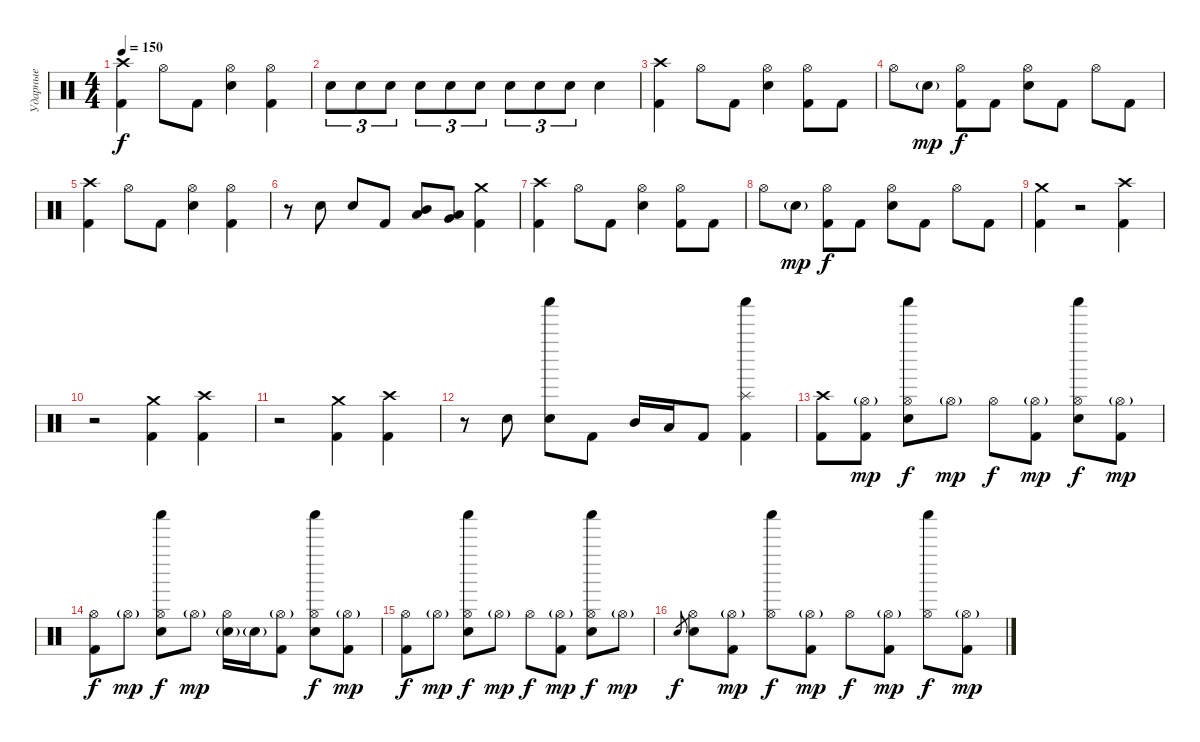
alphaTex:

\track ("Ударные" "Ударные") {instrument percussion}
\staff {score}
\articulation defaults
\ts (4 4)
\tempo 150
\clef neutral
\ks c
("Crash high (hit)" "Kick (hit) 2").4{dy f} "Hi-Hat (open)".8 "Kick (hit) 2".8 ("Hi-Hat (open)" "Snare (hit) 2").4 ("Hi-Hat (open)" "Kick (hit) 2").4 |
"Snare (hit) 2".8{tu (3 2)} "Snare (hit) 2".8{tu (3 2)} "Snare (hit) 2".8{tu (3 2)} "Snare (hit) 2".8{tu (3 2)} "Snare (hit) 2".8{tu (3 2)} "Snare (hit) 2".8{tu (3 2)} "Snare (hit) 2".8{tu (3 2)} "Snare (hit) 2".8{tu (3 2)} "Snare (hit) 2".8{tu (3 2)} "Snare (hit) 2".4 |
("Crash high (hit)" "Kick (hit) 2").4 "Hi-Hat (open)".8 "Kick (hit) 2".8 ("Hi-Hat (open)" "Snare (hit) 2").4 ("Hi-Hat (open)" "Kick (hit) 2").8 "Kick (hit) 2".8 |
"Hi-Hat (open)".8 "Snare (hit) 2"{g}.8{dy mp} ("Hi-Hat (open)" "Kick (hit) 2").8{dy f} "Kick (hit) 2".8 ("Hi-Hat (open)" "Snare (hit) 2").8 "Kick (hit) 2".8 "Hi-Hat (open)".8 "Kick (hit) 2".8 |
("Crash high (hit)" "Kick (hit) 2").4 "Hi-Hat (open)".8 "Kick (hit) 2".8 ("Hi-Hat (open)" "Snare (hit) 2").4 ("Hi-Hat (open)" "Kick (hit) 2").4 |
r.8 "Snare (hit) 2".8 "Snare (hit) 2".8 "Kick (hit) 2".8 ("Low Tom (hit)" "Mid Tom (hit)").8 ("Very Low Tom (hit)" "Low Tom (hit)").8 ("Crash medium (hit)" "Kick (hit) 2").4 |
("Crash high (hit)" "Kick (hit) 2").4 "Hi-Hat (open)".8 "Kick (hit) 2".8 ("Hi-Hat (open)" "Snare (hit) 2").4 ("Hi-Hat (open)" "Kick (hit) 2").8 "Kick (hit) 2".8 |
"Hi-Hat (open)".8 "Snare (hit) 2"{g}.8{dy mp} ("Hi-Hat (open)" "Kick (hit) 2").8{dy f} "Kick (hit) 2".8 ("Hi-Hat (open)" "Snare (hit) 2").8 "Kick (hit) 2".8 "Hi-Hat (open)".8 "Kick (hit) 2".8 |
("Crash medium (hit)" "Kick (hit) 2").4 r.2 ("Crash high (hit)" "Kick (hit) 2").4 |
r.2 ("Crash medium (hit)" "Kick (hit) 2").4 ("Crash high (hit)" "Kick (hit) 2").4 |
r.2 ("Crash medium (hit)" "Kick (hit) 2").4 ("Crash high (hit)" "Kick (hit) 2").4 |
r.8 "Snare (hit) 2".8 ("Shaker (hit)" "Snare (hit) 2").8 "Kick (hit) 2".8 "Mid Tom (hit)".16 "Low Tom (hit)".16 "Kick (hit) 2".8 ("Shaker (hit)" "Splash (hit)" "Kick (hit) 2").4 |
("Crash high (hit)" "Kick (hit) 2").8 ("Hi-Hat (open)"{g} "Kick (hit) 2").8{dy mp} ("Shaker (hit)" "Hi-Hat (open)" "Snare (hit) 2").8{dy f} "Hi-Hat (open)"{g}.8{dy mp} "Hi-Hat (open)".8{dy f} ("Hi-Hat (open)"{g} "Kick (hit) 2").8{dy mp} ("Shaker (hit)" "Hi-Hat (open)" "Snare (hit) 2").8{dy f} ("Hi-Hat (open)"{g} "Kick (hit) 2").8{dy mp} |
("Hi-Hat (open)" "Kick (hit) 2").8{dy f} "Hi-Hat (open)"{g}.8{dy mp} ("Shaker (hit)" "Hi-Hat (open)" "Snare (hit) 2").8{dy f} "Hi-Hat (open)"{g}.8{dy mp} ("Hi-Hat (open)" "Snare (hit) 2"{g}).16 "Snare (hit) 2"{g}.16 ("Hi-Hat (open)"{g} "Kick (hit) 2").8 ("Shaker (hit)" "Hi-Hat (open)" "Snare (hit) 2").8{dy f} ("Hi-Hat (open)"{g} "Kick (hit) 2").8{dy mp} |
("Hi-Hat (open)" "Kick (hit) 2").8{dy f} "Hi-Hat (open)"{g}.8{dy mp} ("Shaker (hit)" "Hi-Hat (open)" "Snare (hit) 2").8{dy f} "Hi-Hat (open)"{g}.8{dy mp} "Hi-Hat (open)".8{dy f} ("Hi-Hat (open)"{g} "Kick (hit) 2").8{dy mp} ("Shaker (hit)" "Hi-Hat (open)" "Snare (hit) 2").8{dy f} "Hi-Hat (open)"{g}.8{dy mp} |
"Snare (hit) 2".8{gr dy f} ("Hi-Hat (open)" "Snare (hit) 2").8 ("Hi-Hat (open)"{g} "Kick (hit) 2").8{dy mp} ("Shaker (hit)" "Hi-Hat (open)").8{dy f} ("Hi-Hat (open)"{g} "Kick (hit) 2").8{dy mp} "Hi-Hat (open)".8{dy f} ("Hi-Hat (open)"{g} "Kick (hit) 2").8{dy mp} ("Shaker (hit)" "Hi-Hat (open)").8{dy f} ("Hi-Hat (open)"{g} "Kick (hit) 2").8{dy mp}
